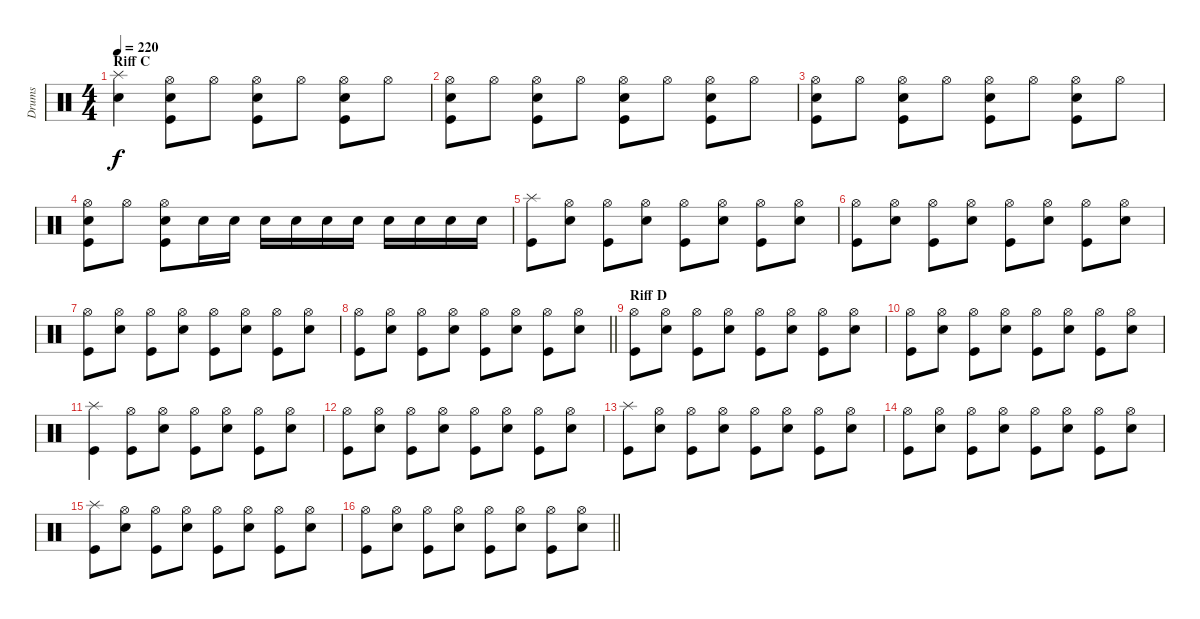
\track ("Drums" "Drums") {instrument percussion}
\staff {score}
\articulation defaults
\ts (4 4)
\section ("" "Riff C")
\tempo 220
\clef neutral
\ks c
("Electric Snare (hit)" "Splash (hit)").4{dy f} ("Kick (hit)" "Electric Snare (hit)" "Hi-Hat (open)").8 "Hi-Hat (open)".8 ("Kick (hit)" "Electric Snare (hit)" "Hi-Hat (open)").8 "Hi-Hat (open)".8 ("Kick (hit)" "Electric Snare (hit)" "Hi-Hat (open)").8 "Hi-Hat (open)".8 |
("Kick (hit)" "Electric Snare (hit)" "Hi-Hat (open)").8 "Hi-Hat (open)".8 ("Kick (hit)" "Electric Snare (hit)" "Hi-Hat (open)").8 "Hi-Hat (open)".8 ("Kick (hit)" "Electric Snare (hit)" "Hi-Hat (open)").8 "Hi-Hat (open)".8 ("Kick (hit)" "Electric Snare (hit)" "Hi-Hat (open)").8 "Hi-Hat (open)".8 |
("Kick (hit)" "Electric Snare (hit)" "Hi-Hat (open)").8 "Hi-Hat (open)".8 ("Kick (hit)" "Electric Snare (hit)" "Hi-Hat (open)").8 "Hi-Hat (open)".8 ("Kick (hit)" "Electric Snare (hit)" "Hi-Hat (open)").8 "Hi-Hat (open)".8 ("Kick (hit)" "Electric Snare (hit)" "Hi-Hat (open)").8 "Hi-Hat (open)".8 |
("Kick (hit)" "Electric Snare (hit)" "Hi-Hat (open)").8 "Hi-Hat (open)".8 ("Kick (hit)" "Electric Snare (hit)" "Hi-Hat (open)").8 "Electric Snare (hit)".16 "Electric Snare (hit)".16 "Electric Snare (hit)".16 "Electric Snare (hit)".16 "Electric Snare (hit)".16 "Electric Snare (hit)".16 "Electric Snare (hit)".16 "Electric Snare (hit)".16 "Electric Snare (hit)".16 "Electric Snare (hit)".16 |
("Kick (hit)" "Splash (hit)").8 ("Electric Snare (hit)" "Hi-Hat (open)").8 ("Kick (hit)" "Hi-Hat (open)").8 ("Electric Snare (hit)" "Hi-Hat (open)").8 ("Kick (hit)" "Hi-Hat (open)").8 ("Electric Snare (hit)" "Hi-Hat (open)").8 ("Kick (hit)" "Hi-Hat (open)").8 ("Electric Snare (hit)" "Hi-Hat (open)").8 |
("Kick (hit)" "Hi-Hat (open)").8 ("Electric Snare (hit)" "Hi-Hat (open)").8 ("Kick (hit)" "Hi-Hat (open)").8 ("Electric Snare (hit)" "Hi-Hat (open)").8 ("Kick (hit)" "Hi-Hat (open)").8 ("Electric Snare (hit)" "Hi-Hat (open)").8 ("Kick (hit)" "Hi-Hat (open)").8 ("Electric Snare (hit)" "Hi-Hat (open)").8 |
("Kick (hit)" "Hi-Hat (open)").8 ("Electric Snare (hit)" "Hi-Hat (open)").8 ("Kick (hit)" "Hi-Hat (open)").8 ("Electric Snare (hit)" "Hi-Hat (open)").8 ("Kick (hit)" "Hi-Hat (open)").8 ("Electric Snare (hit)" "Hi-Hat (open)").8 ("Kick (hit)" "Hi-Hat (open)").8 ("Electric Snare (hit)" "Hi-Hat (open)").8 |
\barLineRight lightlight
("Kick (hit)" "Hi-Hat (open)").8 ("Electric Snare (hit)" "Hi-Hat (open)").8 ("Kick (hit)" "Hi-Hat (open)").8 ("Electric Snare (hit)" "Hi-Hat (open)").8 ("Kick (hit)" "Hi-Hat (open)").8 ("Electric Snare (hit)" "Hi-Hat (open)").8 ("Kick (hit)" "Hi-Hat (open)").8 ("Electric Snare (hit)" "Hi-Hat (open)").8 |
\section ("" "Riff D")
("Kick (hit)" "Hi-Hat (open)").8 ("Electric Snare (hit)" "Hi-Hat (open)").8 ("Kick (hit)" "Hi-Hat (open)").8 ("Electric Snare (hit)" "Hi-Hat (open)").8 ("Kick (hit)" "Hi-Hat (open)").8 ("Electric Snare (hit)" "Hi-Hat (open)").8 ("Kick (hit)" "Hi-Hat (open)").8 ("Electric Snare (hit)" "Hi-Hat (open)").8 |
("Kick (hit)" "Hi-Hat (open)").8 ("Electric Snare (hit)" "Hi-Hat (open)").8 ("Kick (hit)" "Hi-Hat (open)").8 ("Electric Snare (hit)" "Hi-Hat (open)").8 ("Kick (hit)" "Hi-Hat (open)").8 ("Electric Snare (hit)" "Hi-Hat (open)").8 ("Kick (hit)" "Hi-Hat (open)").8 ("Electric Snare (hit)" "Hi-Hat (open)").8 |
("Kick (hit)" "Splash (hit)").4 ("Kick (hit)" "Hi-Hat (open)").8 ("Electric Snare (hit)" "Hi-Hat (open)").8 ("Kick (hit)" "Hi-Hat (open)").8 ("Electric Snare (hit)" "Hi-Hat (open)").8 ("Kick (hit)" "Hi-Hat (open)").8 ("Electric Snare (hit)" "Hi-Hat (open)").8 |
("Kick (hit)" "Hi-Hat (open)").8 ("Electric Snare (hit)" "Hi-Hat (open)").8 ("Kick (hit)" "Hi-Hat (open)").8 ("Electric Snare (hit)" "Hi-Hat (open)").8 ("Kick (hit)" "Hi-Hat (open)").8 ("Electric Snare (hit)" "Hi-Hat (open)").8 ("Kick (hit)" "Hi-Hat (open)").8 ("Electric Snare (hit)" "Hi-Hat (open)").8 |
("Kick (hit)" "Splash (hit)").8 ("Electric Snare (hit)" "Hi-Hat (open)").8 ("Kick (hit)" "Hi-Hat (open)").8 ("Electric Snare (hit)" "Hi-Hat (open)").8 ("Kick (hit)" "Hi-Hat (open)").8 ("Electric Snare (hit)" "Hi-Hat (open)").8 ("Kick (hit)" "Hi-Hat (open)").8 ("Electric Snare (hit)" "Hi-Hat (open)").8 |
("Kick (hit)" "Hi-Hat (open)").8 ("Electric Snare (hit)" "Hi-Hat (open)").8 ("Kick (hit)" "Hi-Hat (open)").8 ("Electric Snare (hit)" "Hi-Hat (open)").8 ("Kick (hit)" "Hi-Hat (open)").8 ("Electric Snare (hit)" "Hi-Hat (open)").8 ("Kick (hit)" "Hi-Hat (open)").8 ("Electric Snare (hit)" "Hi-Hat (open)").8 |
("Kick (hit)" "Splash (hit)").8 ("Electric Snare (hit)" "Hi-Hat (open)").8 ("Kick (hit)" "Hi-Hat (open)").8 ("Electric Snare (hit)" "Hi-Hat (open)").8 ("Kick (hit)" "Hi-Hat (open)").8 ("Electric Snare (hit)" "Hi-Hat (open)").8 ("Kick (hit)" "Hi-Hat (open)").8 ("Electric Snare (hit)" "Hi-Hat (open)").8 |
\barLineRight lightlight
("Kick (hit)" "Hi-Hat (open)").8 ("Electric Snare (hit)" "Hi-Hat (open)").8 ("Kick (hit)" "Hi-Hat (open)").8 ("Electric Snare (hit)" "Hi-Hat (open)").8 ("Kick (hit)" "Hi-Hat (open)").8 ("Electric Snare (hit)" "Hi-Hat (open)").8 ("Kick (hit)" "Hi-Hat (open)").8 ("Electric Snare (hit)" "Hi-Hat (open)").8
